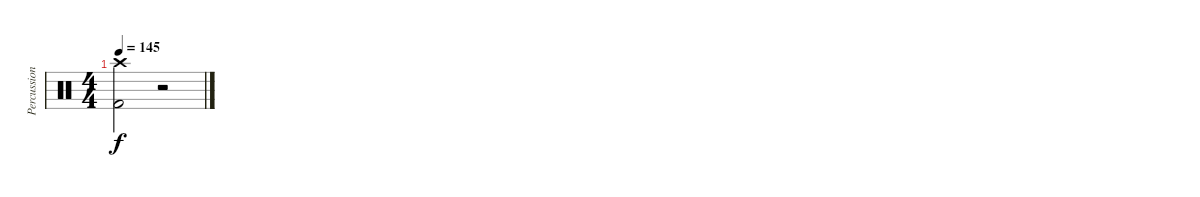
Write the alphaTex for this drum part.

\track ("Percussion" "Percussion") {instrument percussion}
\staff {score}
\articulation defaults
\ts (4 4)
\tempo 145
\clef neutral
\ks c
("Crash high (hit)" "Kick (hit) 2").2{dy f} r.2
